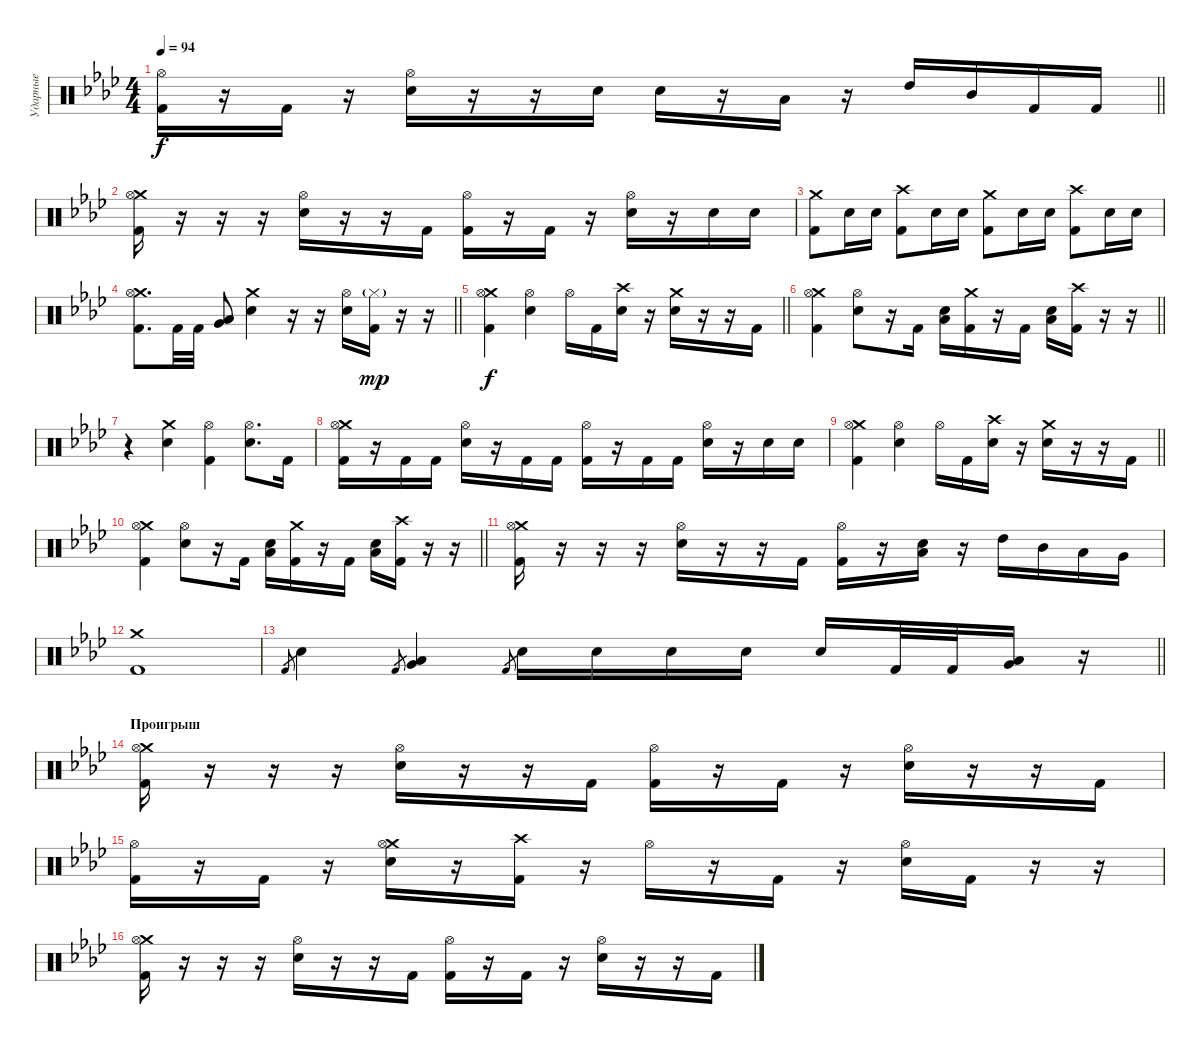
\track ("Ударные" "Ударные") {instrument percussion}
\staff {score}
\articulation defaults
\ts (4 4)
\tempo 94
\clef neutral
\barLineRight lightlight
\ks fminor
("Kick (hit) 2" "Hi-Hat (open)").16{dy f} r.16 "Kick (hit) 2".16 r.16 ("Electric Snare (hit)" "Hi-Hat (open)").16 r.16 r.16 "Electric Snare (hit)".16 "Electric Snare (hit)".16 r.16 "Low Tom (hit)".16 r.16 "High Tom (hit)".16 "Mid Tom (hit)".16 "Kick (hit) 2".16 "Kick (hit) 2".16 |
\section ("" "")
("Crash medium (hit)" "Kick (hit) 2" "Hi-Hat (open)").16 r.16 r.16 r.16 ("Electric Snare (hit)" "Hi-Hat (open)").16 r.16 r.16 "Kick (hit) 2".16 ("Kick (hit) 2" "Hi-Hat (open)").16 r.16 "Kick (hit) 2".16 r.16 ("Electric Snare (hit)" "Hi-Hat (open)").16 r.16 "Electric Snare (hit)".16 "Electric Snare (hit)".16 |
("Crash medium (hit)" "Kick (hit) 2").8 "Electric Snare (hit)".16 "Electric Snare (hit)".16 ("Crash high (hit)" "Kick (hit) 2").8 "Electric Snare (hit)".16 "Electric Snare (hit)".16 ("Crash medium (hit)" "Kick (hit) 2").8 "Electric Snare (hit)".16 "Electric Snare (hit)".16 ("Crash high (hit)" "Kick (hit) 2").8 "Electric Snare (hit)".16 "Electric Snare (hit)".16 |
\barLineRight lightlight
("Crash medium (hit)" "Kick (hit) 2" "Hi-Hat (open)").8{d} "Kick (hit) 2".32 "Kick (hit) 2".32 ("Low Floor Tom (hit)" "Very Low Tom (hit)").8 ("Crash medium (hit)" "Electric Snare (hit)").4 r.16 r.16 ("Hi-Hat (open)" "Electric Snare (hit)").16 ("Hi-Hat (closed)"{g} "Kick (hit) 2").16{dy mp} r.16 r.16 |
\section ("" "")
\barLineRight lightlight
("Crash medium (hit)" "Kick (hit) 2" "Hi-Hat (open)").4{dy f} ("Electric Snare (hit)" "Hi-Hat (open)").4 "Hi-Hat (open)".16 "Kick (hit) 2".16 ("Crash high (hit)" "Electric Snare (hit)").16 r.16 ("Crash medium (hit)" "Electric Snare (hit)").16 r.16 r.16 "Kick (hit) 2".16 |
\barLineRight lightlight
("Crash medium (hit)" "Kick (hit) 2" "Hi-Hat (open)").4 ("Electric Snare (hit)" "Hi-Hat (open)").8 r.16 "Kick (hit) 2".16 ("Electric Snare (hit)" "Low Tom (hit)").16 ("Crash medium (hit)" "Kick (hit) 2").16 r.16 "Kick (hit) 2".16 ("Electric Snare (hit)" "Low Tom (hit)").16 ("Crash high (hit)" "Kick (hit) 2").16 r.16 r.16 |
r.4 ("Crash medium (hit)" "Electric Snare (hit)").4 ("Kick (hit) 2" "Hi-Hat (open)").4 ("Electric Snare (hit)" "Hi-Hat (open)").8{d} "Kick (hit) 2".16 |
("Crash medium (hit)" "Kick (hit) 2" "Hi-Hat (open)").16 r.16 "Kick (hit) 2".16 "Kick (hit) 2".16 ("Electric Snare (hit)" "Hi-Hat (open)").16 r.16 "Kick (hit) 2".16 "Kick (hit) 2".16 ("Kick (hit) 2" "Hi-Hat (open)").16 r.16 "Kick (hit) 2".16 "Kick (hit) 2".16 ("Electric Snare (hit)" "Hi-Hat (open)").16 r.16 "Electric Snare (hit)".16 "Electric Snare (hit)".16 |
\barLineRight lightlight
("Crash medium (hit)" "Kick (hit) 2" "Hi-Hat (open)").4 ("Electric Snare (hit)" "Hi-Hat (open)").4 "Hi-Hat (open)".16 "Kick (hit) 2".16 ("Crash high (hit)" "Electric Snare (hit)").16 r.16 ("Crash medium (hit)" "Electric Snare (hit)").16 r.16 r.16 "Kick (hit) 2".16 |
\barLineRight lightlight
("Crash medium (hit)" "Kick (hit) 2" "Hi-Hat (open)").4 ("Electric Snare (hit)" "Hi-Hat (open)").8 r.16 "Kick (hit) 2".16 ("Electric Snare (hit)" "Low Tom (hit)").16 ("Crash medium (hit)" "Kick (hit) 2").16 r.16 "Kick (hit) 2".16 ("Electric Snare (hit)" "Low Tom (hit)").16 ("Crash high (hit)" "Kick (hit) 2").16 r.16 r.16 |
("Crash medium (hit)" "Kick (hit) 2" "Hi-Hat (open)").16 r.16 r.16 r.16 ("Electric Snare (hit)" "Hi-Hat (open)").16 r.16 r.16 "Kick (hit) 2".16 ("Kick (hit) 2" "Hi-Hat (open)").16 r.16 ("Electric Snare (hit)" "Low Tom (hit)").16 r.16 "High Tom (hit)".16 "Mid Tom (hit)".16 "Low Tom (hit)".16 "Very Low Tom (hit)".16 |
("Crash medium (hit)" "Kick (hit) 2").1 |
\barLineRight lightlight "Kick (hit) 2".8{gr} "Electric Snare (hit)".4 "Kick (hit) 2".8{gr}
("Low Tom (hit)" "Very Low Tom (hit)").4 "Kick (hit) 2".8{gr} "Electric Snare (hit)".16 "Electric Snare (hit)".16 "Electric Snare (hit)".16 "Electric Snare (hit)".16 "Electric Snare (hit)".16 "Kick (hit) 2".32 "Kick (hit) 2".32 ("Low Floor Tom (hit)" "Very Low Tom (hit)").16 r.16 |
\section ("" "Проигрыш")
("Crash medium (hit)" "Kick (hit) 2" "Hi-Hat (open)").16 r.16 r.16 r.16 ("Electric Snare (hit)" "Hi-Hat (open)").16 r.16 r.16 "Kick (hit) 2".16 ("Kick (hit) 2" "Hi-Hat (open)").16 r.16 "Kick (hit) 2".16 r.16 ("Electric Snare (hit)" "Hi-Hat (open)").16 r.16 r.16 "Kick (hit) 2".16 |
("Kick (hit) 2" "Hi-Hat (open)").16 r.16 "Kick (hit) 2".16 r.16 ("Crash medium (hit)" "Electric Snare (hit)" "Hi-Hat (open)").16 r.16 ("Crash high (hit)" "Kick (hit) 2").16 r.16 "Hi-Hat (open)".16 r.16 "Kick (hit) 2".16 r.16 ("Electric Snare (hit)" "Hi-Hat (open)").16 "Kick (hit) 2".16 r.16 r.16 |
("Crash medium (hit)" "Kick (hit) 2" "Hi-Hat (open)").16 r.16 r.16 r.16 ("Electric Snare (hit)" "Hi-Hat (open)").16 r.16 r.16 "Kick (hit) 2".16 ("Kick (hit) 2" "Hi-Hat (open)").16 r.16 "Kick (hit) 2".16 r.16 ("Electric Snare (hit)" "Hi-Hat (open)").16 r.16 r.16 "Kick (hit) 2".16
